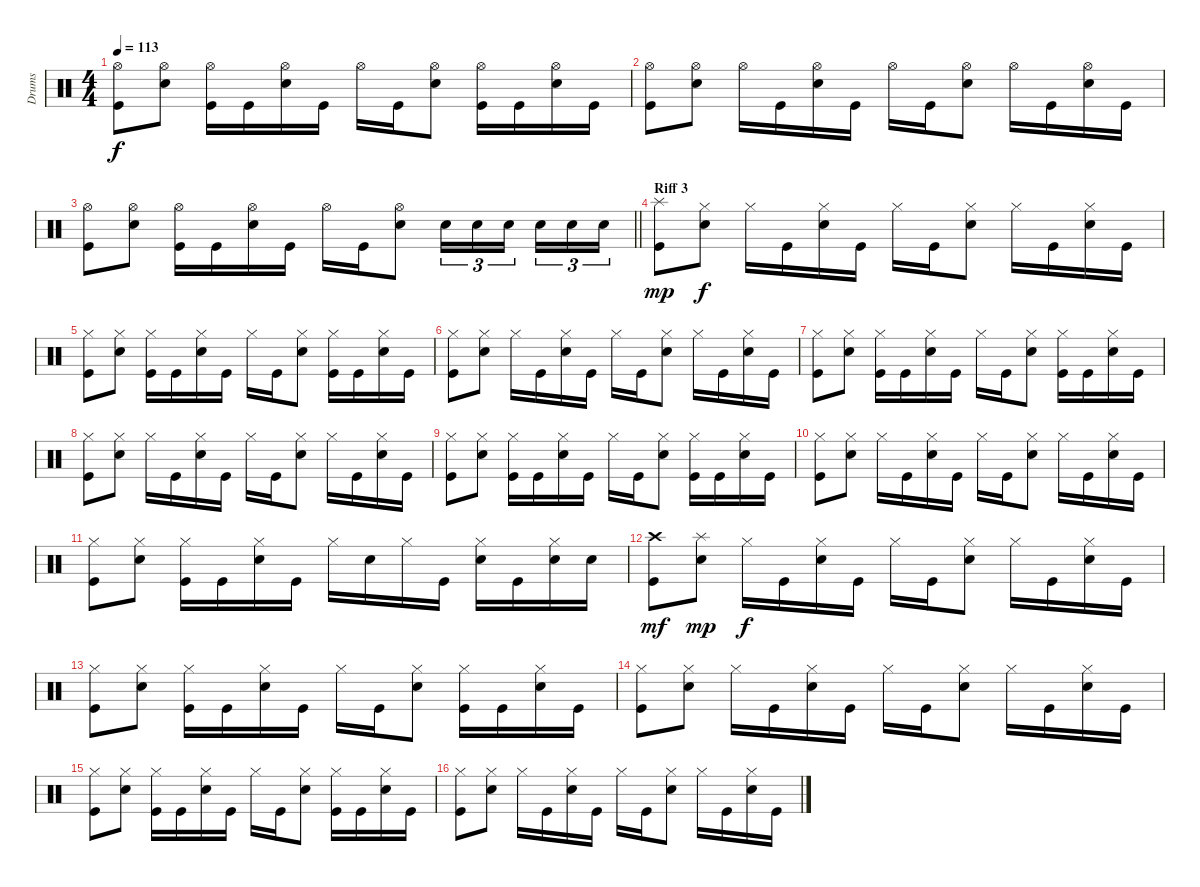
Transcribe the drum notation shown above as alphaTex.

\track ("Drums" "Drums") {instrument percussion}
\staff {score}
\articulation defaults
\ts (4 4)
\tempo 113
\clef neutral
\ks c
("Hi-Hat (open)" "Kick (hit)").8{dy f} ("Hi-Hat (open)" "Snare (hit) 2").8 ("Hi-Hat (open)" "Kick (hit)").16 "Kick (hit)".16 ("Hi-Hat (open)" "Snare (hit) 2").16 "Kick (hit)".16 "Hi-Hat (open)".16 "Kick (hit)".16 ("Hi-Hat (open)" "Snare (hit) 2").8 ("Hi-Hat (open)" "Kick (hit)").16 "Kick (hit)".16 ("Hi-Hat (open)" "Snare (hit) 2").16 "Kick (hit)".16 |
("Hi-Hat (open)" "Kick (hit)").8 ("Hi-Hat (open)" "Snare (hit) 2").8 "Hi-Hat (open)".16 "Kick (hit)".16 ("Hi-Hat (open)" "Snare (hit) 2").16 "Kick (hit)".16 "Hi-Hat (open)".16 "Kick (hit)".16 ("Hi-Hat (open)" "Snare (hit) 2").8 "Hi-Hat (open)".16 "Kick (hit)".16 ("Hi-Hat (open)" "Snare (hit) 2").16 "Kick (hit)".16 |
\barLineRight lightlight
("Hi-Hat (open)" "Kick (hit)").8 ("Hi-Hat (open)" "Snare (hit) 2").8 ("Hi-Hat (open)" "Kick (hit)").16 "Kick (hit)".16 ("Hi-Hat (open)" "Snare (hit) 2").16 "Kick (hit)".16 "Hi-Hat (open)".16 "Kick (hit)".16 ("Hi-Hat (open)" "Snare (hit) 2").8 "Snare (hit) 2".16{tu (3 2)} "Snare (hit) 2".16{tu (3 2)} "Snare (hit) 2".16{tu (3 2) beam splitsecondary} "Snare (hit) 2".16{tu (3 2)} "Snare (hit) 2".16{tu (3 2)} "Snare (hit) 2".16{tu (3 2)} |
\section ("" "Riff 3")
("Splash (hit)" "Kick (hit)").8{dy mp} ("Hi-Hat (closed)" "Snare (hit) 2").8{dy f} "Hi-Hat (closed)".16 "Kick (hit)".16 ("Hi-Hat (closed)" "Snare (hit) 2").16 "Kick (hit)".16 "Hi-Hat (closed)".16 "Kick (hit)".16 ("Hi-Hat (closed)" "Snare (hit) 2").8 "Hi-Hat (closed)".16 "Kick (hit)".16 ("Hi-Hat (closed)" "Snare (hit) 2").16 "Kick (hit)".16 |
("Hi-Hat (closed)" "Kick (hit)").8 ("Hi-Hat (closed)" "Snare (hit) 2").8 ("Hi-Hat (closed)" "Kick (hit)").16 "Kick (hit)".16 ("Hi-Hat (closed)" "Snare (hit) 2").16 "Kick (hit)".16 "Hi-Hat (closed)".16 "Kick (hit)".16 ("Hi-Hat (closed)" "Snare (hit) 2").8 ("Hi-Hat (closed)" "Kick (hit)").16 "Kick (hit)".16 ("Hi-Hat (closed)" "Snare (hit) 2").16 "Kick (hit)".16 |
("Hi-Hat (closed)" "Kick (hit)").8 ("Hi-Hat (closed)" "Snare (hit) 2").8 "Hi-Hat (closed)".16 "Kick (hit)".16 ("Hi-Hat (closed)" "Snare (hit) 2").16 "Kick (hit)".16 "Hi-Hat (closed)".16 "Kick (hit)".16 ("Hi-Hat (closed)" "Snare (hit) 2").8 "Hi-Hat (closed)".16 "Kick (hit)".16 ("Hi-Hat (closed)" "Snare (hit) 2").16 "Kick (hit)".16 |
("Hi-Hat (closed)" "Kick (hit)").8 ("Hi-Hat (closed)" "Snare (hit) 2").8 ("Hi-Hat (closed)" "Kick (hit)").16 "Kick (hit)".16 ("Hi-Hat (closed)" "Snare (hit) 2").16 "Kick (hit)".16 "Hi-Hat (closed)".16 "Kick (hit)".16 ("Hi-Hat (closed)" "Snare (hit) 2").8 ("Hi-Hat (closed)" "Kick (hit)").16 "Kick (hit)".16 ("Hi-Hat (closed)" "Snare (hit) 2").16 "Kick (hit)".16 |
("Hi-Hat (closed)" "Kick (hit)").8 ("Hi-Hat (closed)" "Snare (hit) 2").8 "Hi-Hat (closed)".16 "Kick (hit)".16 ("Hi-Hat (closed)" "Snare (hit) 2").16 "Kick (hit)".16 "Hi-Hat (closed)".16 "Kick (hit)".16 ("Hi-Hat (closed)" "Snare (hit) 2").8 "Hi-Hat (closed)".16 "Kick (hit)".16 ("Hi-Hat (closed)" "Snare (hit) 2").16 "Kick (hit)".16 |
("Hi-Hat (closed)" "Kick (hit)").8 ("Hi-Hat (closed)" "Snare (hit) 2").8 ("Hi-Hat (closed)" "Kick (hit)").16 "Kick (hit)".16 ("Hi-Hat (closed)" "Snare (hit) 2").16 "Kick (hit)".16 "Hi-Hat (closed)".16 "Kick (hit)".16 ("Hi-Hat (closed)" "Snare (hit) 2").8 ("Hi-Hat (closed)" "Kick (hit)").16 "Kick (hit)".16 ("Hi-Hat (closed)" "Snare (hit) 2").16 "Kick (hit)".16 |
("Hi-Hat (closed)" "Kick (hit)").8 ("Hi-Hat (closed)" "Snare (hit) 2").8 "Hi-Hat (closed)".16 "Kick (hit)".16 ("Hi-Hat (closed)" "Snare (hit) 2").16 "Kick (hit)".16 "Hi-Hat (closed)".16 "Kick (hit)".16 ("Hi-Hat (closed)" "Snare (hit) 2").8 "Hi-Hat (closed)".16 "Kick (hit)".16 ("Hi-Hat (closed)" "Snare (hit) 2").16 "Kick (hit)".16 |
("Hi-Hat (closed)" "Kick (hit)").8 ("Hi-Hat (closed)" "Snare (hit) 2").8 ("Hi-Hat (closed)" "Kick (hit)").16 "Kick (hit)".16 ("Hi-Hat (closed)" "Snare (hit) 2").16 "Kick (hit)".16 "Hi-Hat (closed)".16 "Snare (hit) 2".16 "Hi-Hat (closed)".16 "Kick (hit)".16 ("Hi-Hat (closed)" "Snare (hit) 2").16 "Kick (hit)".16 ("Hi-Hat (closed)" "Snare (hit) 2").16 "Snare (hit) 2".16 |
("Crash high (hit)" "Kick (hit)").8{dy mf} ("Splash (hit)" "Snare (hit) 2").8{dy mp} "Hi-Hat (closed)".16{dy f} "Kick (hit)".16 ("Hi-Hat (closed)" "Snare (hit) 2").16 "Kick (hit)".16 "Hi-Hat (closed)".16 "Kick (hit)".16 ("Hi-Hat (closed)" "Snare (hit) 2").8 "Hi-Hat (closed)".16 "Kick (hit)".16 ("Hi-Hat (closed)" "Snare (hit) 2").16 "Kick (hit)".16 |
("Hi-Hat (closed)" "Kick (hit)").8 ("Hi-Hat (closed)" "Snare (hit) 2").8 ("Hi-Hat (closed)" "Kick (hit)").16 "Kick (hit)".16 ("Hi-Hat (closed)" "Snare (hit) 2").16 "Kick (hit)".16 "Hi-Hat (closed)".16 "Kick (hit)".16 ("Hi-Hat (closed)" "Snare (hit) 2").8 ("Hi-Hat (closed)" "Kick (hit)").16 "Kick (hit)".16 ("Hi-Hat (closed)" "Snare (hit) 2").16 "Kick (hit)".16 |
("Hi-Hat (closed)" "Kick (hit)").8 ("Hi-Hat (closed)" "Snare (hit) 2").8 "Hi-Hat (closed)".16 "Kick (hit)".16 ("Hi-Hat (closed)" "Snare (hit) 2").16 "Kick (hit)".16 "Hi-Hat (closed)".16 "Kick (hit)".16 ("Hi-Hat (closed)" "Snare (hit) 2").8 "Hi-Hat (closed)".16 "Kick (hit)".16 ("Hi-Hat (closed)" "Snare (hit) 2").16 "Kick (hit)".16 |
("Hi-Hat (closed)" "Kick (hit)").8 ("Hi-Hat (closed)" "Snare (hit) 2").8 ("Hi-Hat (closed)" "Kick (hit)").16 "Kick (hit)".16 ("Hi-Hat (closed)" "Snare (hit) 2").16 "Kick (hit)".16 "Hi-Hat (closed)".16 "Kick (hit)".16 ("Hi-Hat (closed)" "Snare (hit) 2").8 ("Hi-Hat (closed)" "Kick (hit)").16 "Kick (hit)".16 ("Hi-Hat (closed)" "Snare (hit) 2").16 "Kick (hit)".16 |
("Hi-Hat (closed)" "Kick (hit)").8 ("Hi-Hat (closed)" "Snare (hit) 2").8 "Hi-Hat (closed)".16 "Kick (hit)".16 ("Hi-Hat (closed)" "Snare (hit) 2").16 "Kick (hit)".16 "Hi-Hat (closed)".16 "Kick (hit)".16 ("Hi-Hat (closed)" "Snare (hit) 2").8 "Hi-Hat (closed)".16 "Kick (hit)".16 ("Hi-Hat (closed)" "Snare (hit) 2").16 "Kick (hit)".16
